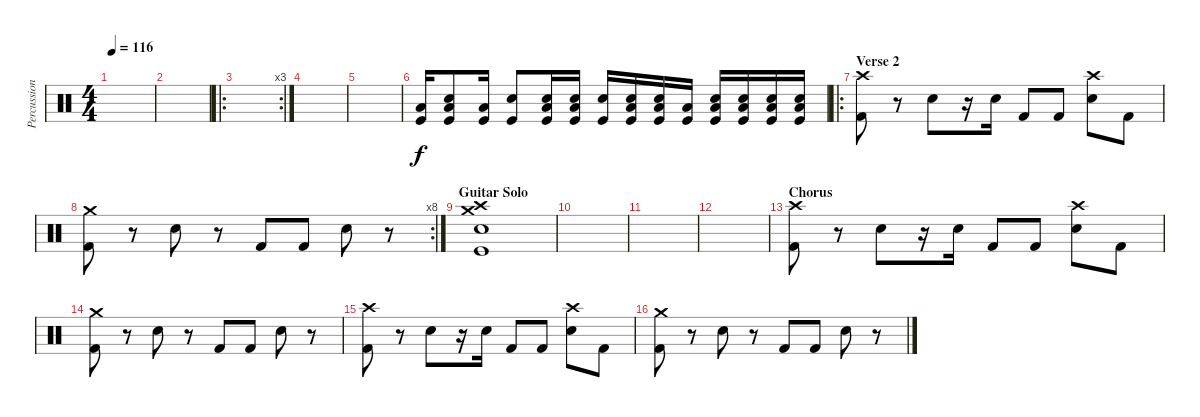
\track ("Percussion" "Percussion") {instrument percussion}
\staff {score}
\articulation defaults
\ts (4 4)
\tempo 116
\clef neutral
\ks c
|
|
\ro
\rc 3
|
|
|
("Low Floor Tom (hit)" "Kick (hit)").16 ("Low Tom (hit)" "Electric Snare (hit)" "Kick (hit)").8 ("Low Floor Tom (hit)" "Kick (hit)").16 ("Electric Snare (hit)" "Kick (hit)").8 ("Low Tom (hit)" "Electric Snare (hit)" "Kick (hit)").16 ("Low Tom (hit)" "Electric Snare (hit)" "Kick (hit)").16 ("Electric Snare (hit)" "Kick (hit)").16 ("Low Floor Tom (hit)" "Electric Snare (hit)" "Kick (hit)").16 ("Low Floor Tom (hit)" "Electric Snare (hit)" "Kick (hit)").16 ("Low Floor Tom (hit)" "Kick (hit)").16 ("Low Tom (hit)" "Electric Snare (hit)" "Kick (hit)").16 ("Low Tom (hit)" "Electric Snare (hit)" "Kick (hit)").16 ("Low Floor Tom (hit)" "Electric Snare (hit)" "Kick (hit)").16 ("Low Floor Tom (hit)" "Electric Snare (hit)" "Kick (hit)").16 |
\ro
\section ("" "Verse 2")
("Crash high (hit)" "Kick (hit) 2").8 r.8 "Electric Snare (hit)".8 r.16 "Electric Snare (hit)".16 "Kick (hit) 2".8 "Kick (hit) 2".8 ("Crash high (hit)" "Electric Snare (hit)").8 "Kick (hit) 2".8 |
\rc 8
("Crash medium (hit)" "Kick (hit) 2").8 r.8 "Electric Snare (hit)".8 r.8 "Kick (hit) 2".8 "Kick (hit) 2".8 "Electric Snare (hit)".8 r.8 |
\section ("" "Guitar Solo")
("Crash high (hit)" "Crash medium (hit)" "Electric Snare (hit)" "Kick (hit)").1 |
|
|
|
\section ("" "Chorus")
("Crash high (hit)" "Kick (hit) 2").8 r.8 "Electric Snare (hit)".8 r.16 "Electric Snare (hit)".16 "Kick (hit) 2".8 "Kick (hit) 2".8 ("Crash high (hit)" "Electric Snare (hit)").8 "Kick (hit) 2".8 |
("Crash medium (hit)" "Kick (hit) 2").8 r.8 "Electric Snare (hit)".8 r.8 "Kick (hit) 2".8 "Kick (hit) 2".8 "Electric Snare (hit)".8 r.8 |
("Crash high (hit)" "Kick (hit) 2").8 r.8 "Electric Snare (hit)".8 r.16 "Electric Snare (hit)".16 "Kick (hit) 2".8 "Kick (hit) 2".8 ("Crash high (hit)" "Electric Snare (hit)").8 "Kick (hit) 2".8 |
("Crash medium (hit)" "Kick (hit) 2").8 r.8 "Electric Snare (hit)".8 r.8 "Kick (hit) 2".8 "Kick (hit) 2".8 "Electric Snare (hit)".8 r.8
